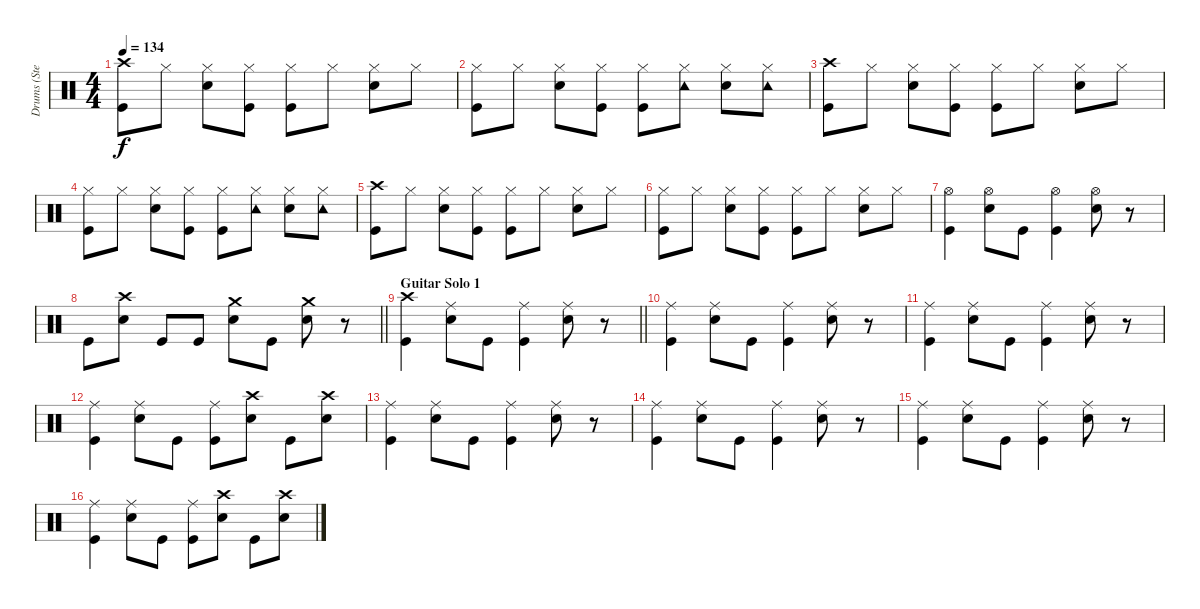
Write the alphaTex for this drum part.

\track ("Drums (Steven Adler)" "Drums (Ste") {instrument percussion}
\staff {score}
\articulation defaults
\ts (4 4)
\tempo 134
\clef neutral
\ks c
("Crash high (hit)" "Kick (hit)").8{dy f} "Hi-Hat (closed)".8 ("Hi-Hat (closed)" "Snare (hit) 2").8 ("Hi-Hat (closed)" "Kick (hit)").8 ("Hi-Hat (closed)" "Kick (hit)").8 "Hi-Hat (closed)".8 ("Hi-Hat (closed)" "Snare (hit) 2").8 "Hi-Hat (closed)".8 |
("Hi-Hat (closed)" "Kick (hit)").8 "Hi-Hat (closed)".8 ("Hi-Hat (closed)" "Snare (hit) 2").8 ("Hi-Hat (closed)" "Kick (hit)").8 ("Hi-Hat (closed)" "Kick (hit)").8 ("Hi-Hat (closed)" "Tambourine (hit)").8 ("Hi-Hat (closed)" "Snare (hit) 2").8 ("Hi-Hat (closed)" "Tambourine (hit)").8 |
("Crash high (hit)" "Kick (hit)").8 "Hi-Hat (closed)".8 ("Hi-Hat (closed)" "Snare (hit) 2").8 ("Hi-Hat (closed)" "Kick (hit)").8 ("Hi-Hat (closed)" "Kick (hit)").8 "Hi-Hat (closed)".8 ("Hi-Hat (closed)" "Snare (hit) 2").8 "Hi-Hat (closed)".8 |
("Hi-Hat (closed)" "Kick (hit)").8 "Hi-Hat (closed)".8 ("Hi-Hat (closed)" "Snare (hit) 2").8 ("Hi-Hat (closed)" "Kick (hit)").8 ("Hi-Hat (closed)" "Kick (hit)").8 ("Hi-Hat (closed)" "Tambourine (hit)").8 ("Hi-Hat (closed)" "Snare (hit) 2").8 ("Hi-Hat (closed)" "Tambourine (hit)").8 |
("Crash high (hit)" "Kick (hit)").8 "Hi-Hat (closed)".8 ("Hi-Hat (closed)" "Snare (hit) 2").8 ("Hi-Hat (closed)" "Kick (hit)").8 ("Hi-Hat (closed)" "Kick (hit)").8 "Hi-Hat (closed)".8 ("Hi-Hat (closed)" "Snare (hit) 2").8 "Hi-Hat (closed)".8 |
("Hi-Hat (closed)" "Kick (hit)").8 "Hi-Hat (closed)".8 ("Hi-Hat (closed)" "Snare (hit) 2").8 ("Hi-Hat (closed)" "Kick (hit)").8 ("Hi-Hat (closed)" "Kick (hit)").8 "Hi-Hat (closed)".8 ("Hi-Hat (closed)" "Snare (hit) 2").8 "Hi-Hat (closed)".8 |
("Hi-Hat (open)" "Kick (hit)").4 ("Hi-Hat (open)" "Snare (hit) 2").8 "Kick (hit)".8 ("Hi-Hat (open)" "Kick (hit)").4 ("Hi-Hat (open)" "Snare (hit) 2").8 r.8 |
\barLineRight lightlight "Kick (hit)".8
("Crash high (hit)" "Snare (hit) 2").8 "Kick (hit)".8 "Kick (hit)".8 ("Crash medium (hit)" "Snare (hit) 2").8 "Kick (hit)".8 ("Crash medium (hit)" "Snare (hit) 2").8 r.8 |
\section ("" "Guitar Solo 1")
\barLineRight lightlight
("Crash high (hit)" "Kick (hit)").4 ("Ride (middle)" "Snare (hit) 2").8 "Kick (hit)".8 ("Ride (middle)" "Kick (hit)").4 ("Ride (middle)" "Snare (hit) 2").8 r.8 |
("Ride (middle)" "Kick (hit)").4 ("Ride (middle)" "Snare (hit) 2").8 "Kick (hit)".8 ("Ride (middle)" "Kick (hit)").4 ("Ride (middle)" "Snare (hit) 2").8 r.8 |
("Ride (middle)" "Kick (hit)").4 ("Ride (middle)" "Snare (hit) 2").8 "Kick (hit)".8 ("Ride (middle)" "Kick (hit)").4 ("Ride (middle)" "Snare (hit) 2").8 r.8 |
("Ride (middle)" "Kick (hit)").4 ("Ride (middle)" "Snare (hit) 2").8 "Kick (hit)".8 ("Ride (middle)" "Kick (hit)").8 ("Crash high (hit)" "Snare (hit) 2").8 "Kick (hit)".8 ("Crash high (hit)" "Snare (hit) 2").8 |
("Ride (middle)" "Kick (hit)").4 ("Ride (middle)" "Snare (hit) 2").8 "Kick (hit)".8 ("Ride (middle)" "Kick (hit)").4 ("Ride (middle)" "Snare (hit) 2").8 r.8 |
("Ride (middle)" "Kick (hit)").4 ("Ride (middle)" "Snare (hit) 2").8 "Kick (hit)".8 ("Ride (middle)" "Kick (hit)").4 ("Ride (middle)" "Snare (hit) 2").8 r.8 |
("Ride (middle)" "Kick (hit)").4 ("Ride (middle)" "Snare (hit) 2").8 "Kick (hit)".8 ("Ride (middle)" "Kick (hit)").4 ("Ride (middle)" "Snare (hit) 2").8 r.8 |
("Ride (middle)" "Kick (hit)").4 ("Ride (middle)" "Snare (hit) 2").8 "Kick (hit)".8 ("Ride (middle)" "Kick (hit)").8 ("Crash high (hit)" "Snare (hit) 2").8 "Kick (hit)".8 ("Crash high (hit)" "Snare (hit) 2").8
